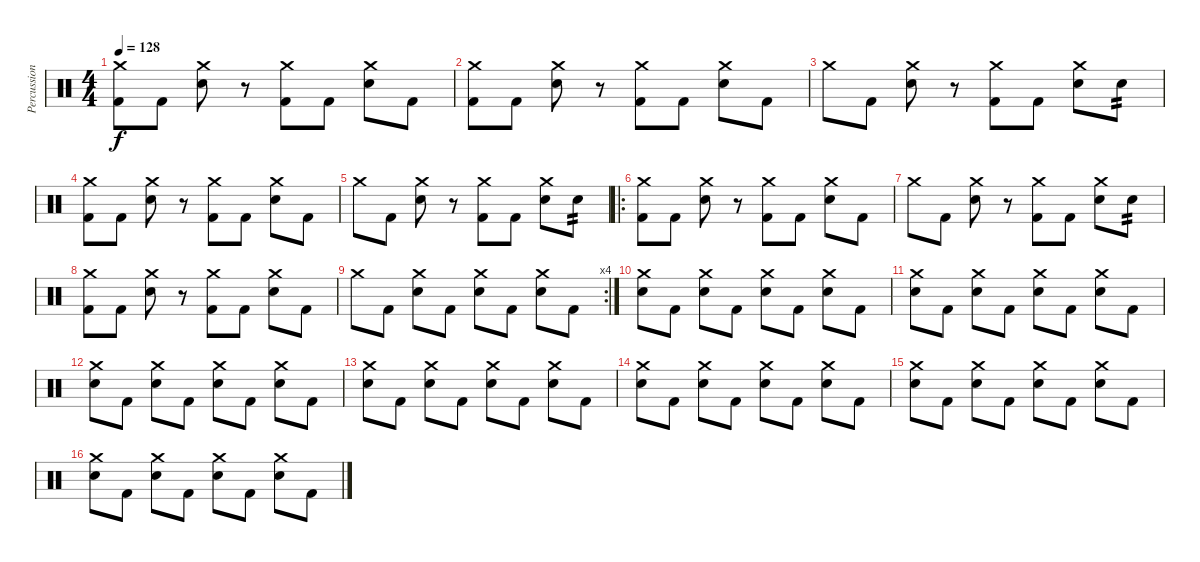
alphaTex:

\track ("Percussion" "Percussion") {instrument percussion}
\staff {score}
\articulation defaults
\ts (4 4)
\tempo 128
\clef neutral
\ks c
("Crash medium (hit)" "Kick (hit) 2").8{dy f} "Kick (hit) 2".8 ("Crash medium (hit)" "Snare (hit) 2").8 r.8 ("Crash medium (hit)" "Kick (hit) 2").8 "Kick (hit) 2".8 ("Crash medium (hit)" "Snare (hit) 2").8 "Kick (hit) 2".8 |
("Crash medium (hit)" "Kick (hit) 2").8 "Kick (hit) 2".8 ("Crash medium (hit)" "Snare (hit) 2").8 r.8 ("Crash medium (hit)" "Kick (hit) 2").8 "Kick (hit) 2".8 ("Crash medium (hit)" "Snare (hit) 2").8 "Kick (hit) 2".8 |
"Crash medium (hit)".8 "Kick (hit) 2".8 ("Crash medium (hit)" "Snare (hit) 2").8 r.8 ("Crash medium (hit)" "Kick (hit) 2").8 "Kick (hit) 2".8 ("Crash medium (hit)" "Snare (hit) 2").8 "Snare (hit) 2".8{tp 2} |
("Crash medium (hit)" "Kick (hit) 2").8 "Kick (hit) 2".8 ("Crash medium (hit)" "Snare (hit) 2").8 r.8 ("Crash medium (hit)" "Kick (hit) 2").8 "Kick (hit) 2".8 ("Crash medium (hit)" "Snare (hit) 2").8 "Kick (hit) 2".8 |
"Crash medium (hit)".8 "Kick (hit) 2".8 ("Crash medium (hit)" "Snare (hit) 2").8 r.8 ("Crash medium (hit)" "Kick (hit) 2").8 "Kick (hit) 2".8 ("Crash medium (hit)" "Snare (hit) 2").8 "Snare (hit) 2".8{tp 2} |
\ro
("Crash medium (hit)" "Kick (hit) 2").8 "Kick (hit) 2".8 ("Crash medium (hit)" "Snare (hit) 2").8 r.8 ("Crash medium (hit)" "Kick (hit) 2").8 "Kick (hit) 2".8 ("Crash medium (hit)" "Snare (hit) 2").8 "Kick (hit) 2".8 |
"Crash medium (hit)".8 "Kick (hit) 2".8 ("Crash medium (hit)" "Snare (hit) 2").8 r.8 ("Crash medium (hit)" "Kick (hit) 2").8 "Kick (hit) 2".8 ("Crash medium (hit)" "Snare (hit) 2").8 "Snare (hit) 2".8{tp 2} |
("Crash medium (hit)" "Kick (hit) 2").8 "Kick (hit) 2".8 ("Crash medium (hit)" "Snare (hit) 2").8 r.8 ("Crash medium (hit)" "Kick (hit) 2").8 "Kick (hit) 2".8 ("Crash medium (hit)" "Snare (hit) 2").8 "Kick (hit) 2".8 |
\rc 4 "Crash medium (hit)".8 "Kick (hit) 2".8
("Crash medium (hit)" "Snare (hit) 2").8 "Kick (hit) 2".8 ("Crash medium (hit)" "Snare (hit) 2").8 "Kick (hit) 2".8 ("Crash medium (hit)" "Snare (hit) 2").8 "Kick (hit) 2".8 |
("Crash medium (hit)" "Snare (hit) 2").8 "Kick (hit) 2".8 ("Crash medium (hit)" "Snare (hit) 2").8 "Kick (hit) 2".8 ("Crash medium (hit)" "Snare (hit) 2").8 "Kick (hit) 2".8 ("Crash medium (hit)" "Snare (hit) 2").8 "Kick (hit) 2".8 |
("Crash medium (hit)" "Snare (hit) 2").8 "Kick (hit) 2".8 ("Crash medium (hit)" "Snare (hit) 2").8 "Kick (hit) 2".8 ("Crash medium (hit)" "Snare (hit) 2").8 "Kick (hit) 2".8 ("Crash medium (hit)" "Snare (hit) 2").8 "Kick (hit) 2".8 |
("Crash medium (hit)" "Snare (hit) 2").8 "Kick (hit) 2".8 ("Crash medium (hit)" "Snare (hit) 2").8 "Kick (hit) 2".8 ("Crash medium (hit)" "Snare (hit) 2").8 "Kick (hit) 2".8 ("Crash medium (hit)" "Snare (hit) 2").8 "Kick (hit) 2".8 |
("Crash medium (hit)" "Snare (hit) 2").8 "Kick (hit) 2".8 ("Crash medium (hit)" "Snare (hit) 2").8 "Kick (hit) 2".8 ("Crash medium (hit)" "Snare (hit) 2").8 "Kick (hit) 2".8 ("Crash medium (hit)" "Snare (hit) 2").8 "Kick (hit) 2".8 |
("Crash medium (hit)" "Snare (hit) 2").8 "Kick (hit) 2".8 ("Crash medium (hit)" "Snare (hit) 2").8 "Kick (hit) 2".8 ("Crash medium (hit)" "Snare (hit) 2").8 "Kick (hit) 2".8 ("Crash medium (hit)" "Snare (hit) 2").8 "Kick (hit) 2".8 |
("Crash medium (hit)" "Snare (hit) 2").8 "Kick (hit) 2".8 ("Crash medium (hit)" "Snare (hit) 2").8 "Kick (hit) 2".8 ("Crash medium (hit)" "Snare (hit) 2").8 "Kick (hit) 2".8 ("Crash medium (hit)" "Snare (hit) 2").8 "Kick (hit) 2".8 |
("Crash medium (hit)" "Snare (hit) 2").8 "Kick (hit) 2".8 ("Crash medium (hit)" "Snare (hit) 2").8 "Kick (hit) 2".8 ("Crash medium (hit)" "Snare (hit) 2").8 "Kick (hit) 2".8 ("Crash medium (hit)" "Snare (hit) 2").8 "Kick (hit) 2".8
